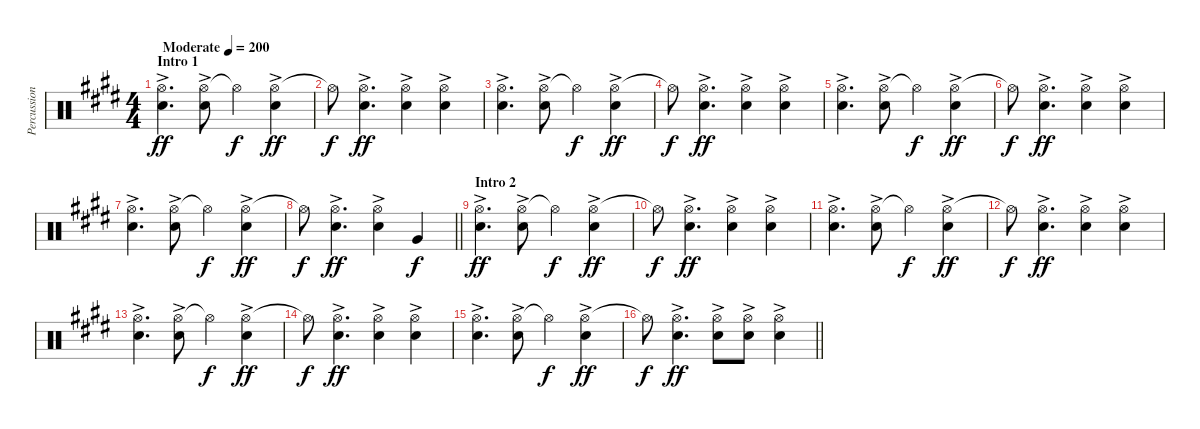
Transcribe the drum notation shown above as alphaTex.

\track ("Percussion - other" "Percussion") {instrument percussion}
\staff {score}
\articulation defaults
\ts (4 4)
\section ("" "Intro 1")
\tempo (200 "Moderate")
\clef neutral
\ks e
("Hi-Hat (open)"{ac} "Snare (hit) 2").4{d dy ff} ("Hi-Hat (open)"{ac} "Snare (hit) 2").8 "Hi-Hat (open)"{t}.4{dy f} ("Hi-Hat (open)"{ac} "Snare (hit) 2").4{dy ff} |
"Hi-Hat (open)"{t}.8{dy f} ("Hi-Hat (open)"{ac} "Snare (hit) 2").4{d dy ff} ("Hi-Hat (open)"{ac} "Snare (hit) 2").4 ("Hi-Hat (open)"{ac} "Snare (hit) 2").4 |
("Hi-Hat (open)"{ac} "Snare (hit) 2").4{d} ("Hi-Hat (open)"{ac} "Snare (hit) 2").8 "Hi-Hat (open)"{t}.4{dy f} ("Hi-Hat (open)"{ac} "Snare (hit) 2").4{dy ff} |
"Hi-Hat (open)"{t}.8{dy f} ("Hi-Hat (open)"{ac} "Snare (hit) 2").4{d dy ff} ("Hi-Hat (open)"{ac} "Snare (hit) 2").4 ("Hi-Hat (open)"{ac} "Snare (hit) 2").4 |
("Hi-Hat (open)"{ac} "Snare (hit) 2").4{d} ("Hi-Hat (open)"{ac} "Snare (hit) 2").8 "Hi-Hat (open)"{t}.4{dy f} ("Hi-Hat (open)"{ac} "Snare (hit) 2").4{dy ff} |
"Hi-Hat (open)"{t}.8{dy f} ("Hi-Hat (open)"{ac} "Snare (hit) 2").4{d dy ff} ("Hi-Hat (open)"{ac} "Snare (hit) 2").4 ("Hi-Hat (open)"{ac} "Snare (hit) 2").4 |
("Hi-Hat (open)"{ac} "Snare (hit) 2").4{d} ("Hi-Hat (open)"{ac} "Snare (hit) 2").8 "Hi-Hat (open)"{t}.4{dy f} ("Hi-Hat (open)"{ac} "Snare (hit) 2").4{dy ff} |
\barLineRight lightlight "Hi-Hat (open)"{t}.8{dy f}
("Hi-Hat (open)"{ac} "Snare (hit) 2").4{d dy ff} ("Hi-Hat (open)"{ac} "Snare (hit) 2").4 "Very Low Tom (hit)".4{dy f} |
\section ("" "Intro 2")
("Hi-Hat (open)"{ac} "Snare (hit) 2").4{d dy ff} ("Hi-Hat (open)"{ac} "Snare (hit) 2").8 "Hi-Hat (open)"{t}.4{dy f} ("Hi-Hat (open)"{ac} "Snare (hit) 2").4{dy ff} |
"Hi-Hat (open)"{t}.8{dy f} ("Hi-Hat (open)"{ac} "Snare (hit) 2").4{d dy ff} ("Hi-Hat (open)"{ac} "Snare (hit) 2").4 ("Hi-Hat (open)"{ac} "Snare (hit) 2").4 |
("Hi-Hat (open)"{ac} "Snare (hit) 2").4{d} ("Hi-Hat (open)"{ac} "Snare (hit) 2").8 "Hi-Hat (open)"{t}.4{dy f} ("Hi-Hat (open)"{ac} "Snare (hit) 2").4{dy ff} |
"Hi-Hat (open)"{t}.8{dy f} ("Hi-Hat (open)"{ac} "Snare (hit) 2").4{d dy ff} ("Hi-Hat (open)"{ac} "Snare (hit) 2").4 ("Hi-Hat (open)"{ac} "Snare (hit) 2").4 |
("Hi-Hat (open)"{ac} "Snare (hit) 2").4{d} ("Hi-Hat (open)"{ac} "Snare (hit) 2").8 "Hi-Hat (open)"{t}.4{dy f} ("Hi-Hat (open)"{ac} "Snare (hit) 2").4{dy ff} |
"Hi-Hat (open)"{t}.8{dy f} ("Hi-Hat (open)"{ac} "Snare (hit) 2").4{d dy ff} ("Hi-Hat (open)"{ac} "Snare (hit) 2").4 ("Hi-Hat (open)"{ac} "Snare (hit) 2").4 |
("Hi-Hat (open)"{ac} "Snare (hit) 2").4{d} ("Hi-Hat (open)"{ac} "Snare (hit) 2").8 "Hi-Hat (open)"{t}.4{dy f} ("Hi-Hat (open)"{ac} "Snare (hit) 2").4{dy ff} |
\barLineRight lightlight "Hi-Hat (open)"{t}.8{dy f}
("Hi-Hat (open)"{ac} "Snare (hit) 2").4{d dy ff} ("Hi-Hat (open)"{ac} "Snare (hit) 2").8 ("Hi-Hat (open)"{ac} "Snare (hit) 2").8 ("Hi-Hat (open)"{ac} "Snare (hit) 2").4
